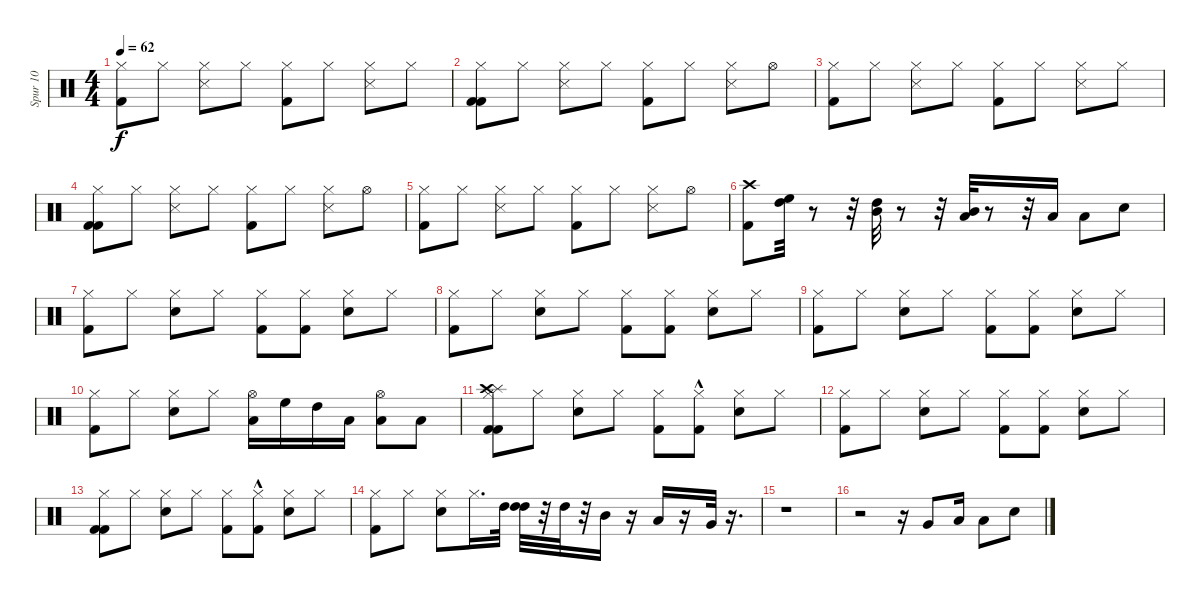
\track ("Spur 10" "Spur 10") {instrument percussion}
\staff {score}
\articulation defaults
\ts (4 4)
\tempo 62
\clef neutral
\ks c
("Kick (hit) 2" "Hi-Hat (closed)").8{dy f} "Hi-Hat (closed)".8 ("Snare (side stick) 3" "Hi-Hat (closed)").8 "Hi-Hat (closed)".8 ("Kick (hit) 2" "Hi-Hat (closed)").8 "Hi-Hat (closed)".8 ("Snare (side stick) 3" "Hi-Hat (closed)").8 "Hi-Hat (closed)".8 |
("Kick (hit) 2" "Hi-Hat (closed)" "Kick (hit) 2").8 "Hi-Hat (closed)".8 ("Snare (side stick) 3" "Hi-Hat (closed)").8 "Hi-Hat (closed)".8 ("Kick (hit) 2" "Hi-Hat (closed)").8 "Hi-Hat (closed)".8 ("Snare (side stick) 3" "Hi-Hat (closed)").8 "Hi-Hat (open)".8 |
("Kick (hit) 2" "Hi-Hat (closed)").8 "Hi-Hat (closed)".8 ("Snare (side stick) 3" "Hi-Hat (closed)").8 "Hi-Hat (closed)".8 ("Kick (hit) 2" "Hi-Hat (closed)").8 "Hi-Hat (closed)".8 ("Snare (side stick) 3" "Hi-Hat (closed)").8 "Hi-Hat (closed)".8 |
("Kick (hit) 2" "Hi-Hat (closed)" "Kick (hit) 2").8 "Hi-Hat (closed)".8 ("Snare (side stick) 3" "Hi-Hat (closed)").8 "Hi-Hat (closed)".8 ("Kick (hit) 2" "Hi-Hat (closed)").8 "Hi-Hat (closed)".8 ("Snare (side stick) 3" "Hi-Hat (closed)").8 "Hi-Hat (open)".8 |
("Kick (hit) 2" "Hi-Hat (closed)").8 "Hi-Hat (closed)".8 ("Snare (side stick) 3" "Hi-Hat (closed)").8 "Hi-Hat (closed)".8 ("Kick (hit) 2" "Hi-Hat (closed)").8 "Hi-Hat (closed)".8 ("Snare (side stick) 3" "Hi-Hat (closed)").8 "Hi-Hat (open)".8 |
("Crash high (hit)" "Kick (hit) 2").8 ("High Floor Tom (hit)" "High Tom (hit)").32 r.8 r.32 ("High Tom (hit)" "Mid Tom (hit)").32 r.8 r.32 ("Mid Tom (hit)" "Low Tom (hit)").32 r.8 r.32 "Low Floor Tom (hit)".16 "Low Floor Tom (hit)".8 "Snare (hit) 2".8 |
("Kick (hit) 2" "Hi-Hat (closed)").8 "Hi-Hat (closed)".8 ("Snare (hit) 2" "Hi-Hat (closed)").8 "Hi-Hat (closed)".8 ("Kick (hit) 2" "Hi-Hat (closed)").8 ("Kick (hit) 2" "Hi-Hat (closed)").8 ("Snare (hit) 2" "Hi-Hat (closed)").8 "Hi-Hat (closed)".8 |
("Kick (hit) 2" "Hi-Hat (closed)").8 "Hi-Hat (closed)".8 ("Snare (hit) 2" "Hi-Hat (closed)").8 "Hi-Hat (closed)".8 ("Kick (hit) 2" "Hi-Hat (closed)").8 ("Kick (hit) 2" "Hi-Hat (closed)").8 ("Snare (hit) 2" "Hi-Hat (closed)").8 "Hi-Hat (closed)".8 |
("Kick (hit) 2" "Hi-Hat (closed)").8 "Hi-Hat (closed)".8 ("Snare (hit) 2" "Hi-Hat (closed)").8 "Hi-Hat (closed)".8 ("Kick (hit) 2" "Hi-Hat (closed)").8 ("Kick (hit) 2" "Hi-Hat (closed)").8 ("Snare (hit) 2" "Hi-Hat (closed)").8 "Hi-Hat (closed)".8 |
("Kick (hit) 2" "Hi-Hat (closed)").8 "Hi-Hat (closed)".8 ("Snare (hit) 2" "Hi-Hat (closed)").8 "Hi-Hat (closed)".8 ("Hi-Hat (open)" "Low Tom (hit)").16 "High Floor Tom (hit)".16 "High Tom (hit)".16 "Low Tom (hit)".16 ("Hi-Hat (open)" "Low Floor Tom (hit)").8 "Low Floor Tom (hit)".8 |
("Kick (hit) 2" "Hi-Hat (closed)" "Splash (hit)" "Crash high (hit)" "Kick (hit) 2").8 "Hi-Hat (closed)".8 ("Snare (hit) 2" "Hi-Hat (closed)").8 "Hi-Hat (closed)".8 ("Kick (hit) 2" "Hi-Hat (closed)").8 ("Kick (hit) 2"{hac} "Hi-Hat (closed)").8 ("Snare (hit) 2" "Hi-Hat (closed)").8 "Hi-Hat (closed)".8 |
("Kick (hit) 2" "Hi-Hat (closed)").8 "Hi-Hat (closed)".8 ("Snare (hit) 2" "Hi-Hat (closed)").8 "Hi-Hat (closed)".8 ("Kick (hit) 2" "Hi-Hat (closed)").8 ("Kick (hit) 2" "Hi-Hat (closed)").8 ("Snare (hit) 2" "Hi-Hat (closed)").8 "Hi-Hat (closed)".8 |
("Kick (hit) 2" "Hi-Hat (closed)" "Kick (hit) 2").8 "Hi-Hat (closed)".8 ("Snare (hit) 2" "Hi-Hat (closed)").8 "Hi-Hat (closed)".8 ("Kick (hit) 2" "Hi-Hat (closed)").8 ("Kick (hit) 2"{hac} "Hi-Hat (closed)").8 ("Snare (hit) 2" "Hi-Hat (closed)").8 "Hi-Hat (closed)".8 |
("Kick (hit) 2" "Hi-Hat (closed)").8 "Hi-Hat (closed)".8 ("Snare (hit) 2" "Hi-Hat (closed)").8 "Hi-Hat (closed)".16{d} "High Tom (hit)".32 ("High Tom (hit)" "High Tom (hit)").32 r.32 "High Tom (hit)".32 r.32 "Mid Tom (hit)".16 r.16 "Low Tom (hit)".16 r.16 "Very Low Tom (hit)".32 r.16{d} |
r.1 |
r.2 r.16 "Very Low Tom (hit)".8 "Low Floor Tom (hit)".16 "Low Floor Tom (hit)".8 "Snare (hit) 2".8
